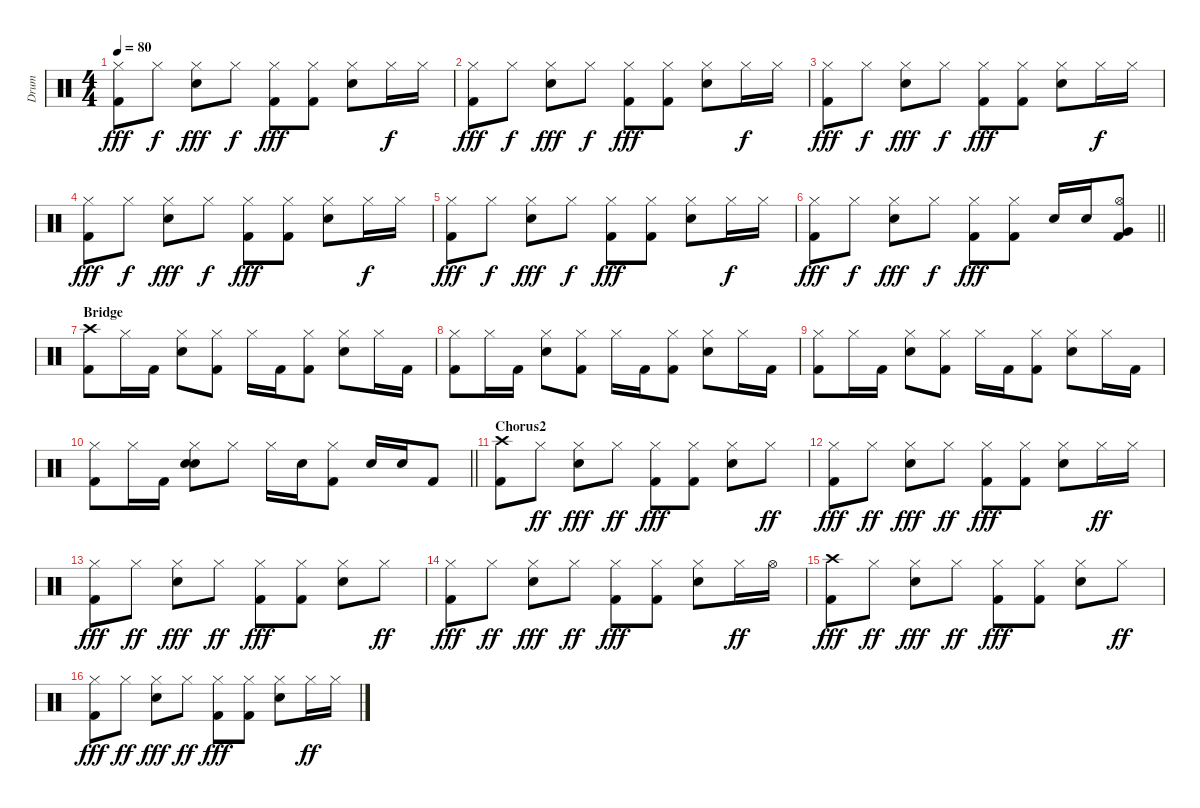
\track ("Drum" "Drum") {instrument percussion}
\staff {score}
\articulation defaults
\ts (4 4)
\tempo 80
\clef neutral
\ks c
("Hi-Hat (closed)" "Kick (hit) 2").8{dy fff} "Hi-Hat (closed)".8{dy f} ("Hi-Hat (closed)" "Electric Snare (hit)").8{dy fff} "Hi-Hat (closed)".8{dy f} ("Hi-Hat (closed)" "Kick (hit) 2").8{dy fff} ("Hi-Hat (closed)" "Kick (hit) 2").8 ("Hi-Hat (closed)" "Electric Snare (hit)").8 "Hi-Hat (closed)".16{dy f} "Hi-Hat (closed)".16 |
("Hi-Hat (closed)" "Kick (hit) 2").8{dy fff} "Hi-Hat (closed)".8{dy f} ("Hi-Hat (closed)" "Electric Snare (hit)").8{dy fff} "Hi-Hat (closed)".8{dy f} ("Hi-Hat (closed)" "Kick (hit) 2").8{dy fff} ("Hi-Hat (closed)" "Kick (hit) 2").8 ("Hi-Hat (closed)" "Electric Snare (hit)").8 "Hi-Hat (closed)".16{dy f} "Hi-Hat (closed)".16 |
("Hi-Hat (closed)" "Kick (hit) 2").8{dy fff} "Hi-Hat (closed)".8{dy f} ("Hi-Hat (closed)" "Electric Snare (hit)").8{dy fff} "Hi-Hat (closed)".8{dy f} ("Hi-Hat (closed)" "Kick (hit) 2").8{dy fff} ("Hi-Hat (closed)" "Kick (hit) 2").8 ("Hi-Hat (closed)" "Electric Snare (hit)").8 "Hi-Hat (closed)".16{dy f} "Hi-Hat (closed)".16 |
("Hi-Hat (closed)" "Kick (hit) 2").8{dy fff} "Hi-Hat (closed)".8{dy f} ("Hi-Hat (closed)" "Electric Snare (hit)").8{dy fff} "Hi-Hat (closed)".8{dy f} ("Hi-Hat (closed)" "Kick (hit) 2").8{dy fff} ("Hi-Hat (closed)" "Kick (hit) 2").8 ("Hi-Hat (closed)" "Electric Snare (hit)").8 "Hi-Hat (closed)".16{dy f} "Hi-Hat (closed)".16 |
("Hi-Hat (closed)" "Kick (hit) 2").8{dy fff} "Hi-Hat (closed)".8{dy f} ("Hi-Hat (closed)" "Electric Snare (hit)").8{dy fff} "Hi-Hat (closed)".8{dy f} ("Hi-Hat (closed)" "Kick (hit) 2").8{dy fff} ("Hi-Hat (closed)" "Kick (hit) 2").8 ("Hi-Hat (closed)" "Electric Snare (hit)").8 "Hi-Hat (closed)".16{dy f} "Hi-Hat (closed)".16 |
\barLineRight lightlight
("Hi-Hat (closed)" "Kick (hit) 2").8{dy fff} "Hi-Hat (closed)".8{dy f} ("Hi-Hat (closed)" "Electric Snare (hit)").8{dy fff} "Hi-Hat (closed)".8{dy f} ("Hi-Hat (closed)" "Kick (hit) 2").8{dy fff} ("Hi-Hat (closed)" "Kick (hit) 2").8 "Electric Snare (hit)".16 "Electric Snare (hit)".16 ("Hi-Hat (open)" "Very Low Tom (hit)" "Kick (hit) 2").8 |
\section ("" "Bridge")
("Crash high (hit)" "Kick (hit) 2").8 "Hi-Hat (closed)".16 "Kick (hit) 2".16 ("Hi-Hat (closed)" "Electric Snare (hit)").8 ("Hi-Hat (closed)" "Kick (hit) 2").8 "Hi-Hat (closed)".16 "Kick (hit) 2".16 ("Hi-Hat (closed)" "Kick (hit) 2").8 ("Hi-Hat (closed)" "Electric Snare (hit)").8 "Hi-Hat (closed)".16 "Kick (hit) 2".16 |
("Hi-Hat (closed)" "Kick (hit) 2").8 "Hi-Hat (closed)".16 "Kick (hit) 2".16 ("Hi-Hat (closed)" "Electric Snare (hit)").8 ("Hi-Hat (closed)" "Kick (hit) 2").8 "Hi-Hat (closed)".16 "Kick (hit) 2".16 ("Hi-Hat (closed)" "Kick (hit) 2").8 ("Hi-Hat (closed)" "Electric Snare (hit)").8 "Hi-Hat (closed)".16 "Kick (hit) 2".16 |
("Hi-Hat (closed)" "Kick (hit) 2").8 "Hi-Hat (closed)".16 "Kick (hit) 2".16 ("Hi-Hat (closed)" "Electric Snare (hit)").8 ("Hi-Hat (closed)" "Kick (hit) 2").8 "Hi-Hat (closed)".16 "Kick (hit) 2".16 ("Hi-Hat (closed)" "Kick (hit) 2").8 ("Hi-Hat (closed)" "Electric Snare (hit)").8 "Hi-Hat (closed)".16 "Kick (hit) 2".16 |
\barLineRight lightlight
("Hi-Hat (closed)" "Kick (hit) 2").8 "Hi-Hat (closed)".16 "Kick (hit) 2".16 ("Hi-Hat (closed)" "Electric Snare (hit)" "Electric Snare (hit)").8 "Hi-Hat (closed)".8 "Hi-Hat (closed)".16 "Electric Snare (hit)".16 ("Hi-Hat (closed)" "Kick (hit) 2").8 "Electric Snare (hit)".16 "Electric Snare (hit)".16 "Kick (hit) 2".8 |
\section ("" "Chorus2")
("Crash high (hit)" "Kick (hit) 2").8 "Hi-Hat (closed)".8{dy ff} ("Hi-Hat (closed)" "Electric Snare (hit)").8{dy fff} "Hi-Hat (closed)".8{dy ff} ("Hi-Hat (closed)" "Kick (hit) 2").8{dy fff} ("Hi-Hat (closed)" "Kick (hit) 2").8 ("Hi-Hat (closed)" "Electric Snare (hit)").8 "Hi-Hat (closed)".8{dy ff} |
("Hi-Hat (closed)" "Kick (hit) 2").8{dy fff} "Hi-Hat (closed)".8{dy ff} ("Hi-Hat (closed)" "Electric Snare (hit)").8{dy fff} "Hi-Hat (closed)".8{dy ff} ("Hi-Hat (closed)" "Kick (hit) 2").8{dy fff} ("Hi-Hat (closed)" "Kick (hit) 2").8 ("Hi-Hat (closed)" "Electric Snare (hit)").8 "Hi-Hat (closed)".16{dy ff} "Hi-Hat (closed)".16 |
("Hi-Hat (closed)" "Kick (hit) 2").8{dy fff} "Hi-Hat (closed)".8{dy ff} ("Hi-Hat (closed)" "Electric Snare (hit)").8{dy fff} "Hi-Hat (closed)".8{dy ff} ("Hi-Hat (closed)" "Kick (hit) 2").8{dy fff} ("Hi-Hat (closed)" "Kick (hit) 2").8 ("Hi-Hat (closed)" "Electric Snare (hit)").8 "Hi-Hat (closed)".8{dy ff} |
("Hi-Hat (closed)" "Kick (hit) 2").8{dy fff} "Hi-Hat (closed)".8{dy ff} ("Hi-Hat (closed)" "Electric Snare (hit)").8{dy fff} "Hi-Hat (closed)".8{dy ff} ("Hi-Hat (closed)" "Kick (hit) 2").8{dy fff} ("Hi-Hat (closed)" "Kick (hit) 2").8 ("Hi-Hat (closed)" "Electric Snare (hit)").8 "Hi-Hat (closed)".16{dy ff} "Hi-Hat (open)".16 |
("Crash high (hit)" "Kick (hit) 2").8{dy fff} "Hi-Hat (closed)".8{dy ff} ("Hi-Hat (closed)" "Electric Snare (hit)").8{dy fff} "Hi-Hat (closed)".8{dy ff} ("Hi-Hat (closed)" "Kick (hit) 2").8{dy fff} ("Hi-Hat (closed)" "Kick (hit) 2").8 ("Hi-Hat (closed)" "Electric Snare (hit)").8 "Hi-Hat (closed)".8{dy ff} |
("Hi-Hat (closed)" "Kick (hit) 2").8{dy fff} "Hi-Hat (closed)".8{dy ff} ("Hi-Hat (closed)" "Electric Snare (hit)").8{dy fff} "Hi-Hat (closed)".8{dy ff} ("Hi-Hat (closed)" "Kick (hit) 2").8{dy fff} ("Hi-Hat (closed)" "Kick (hit) 2").8 ("Hi-Hat (closed)" "Electric Snare (hit)").8 "Hi-Hat (closed)".16{dy ff} "Hi-Hat (closed)".16
